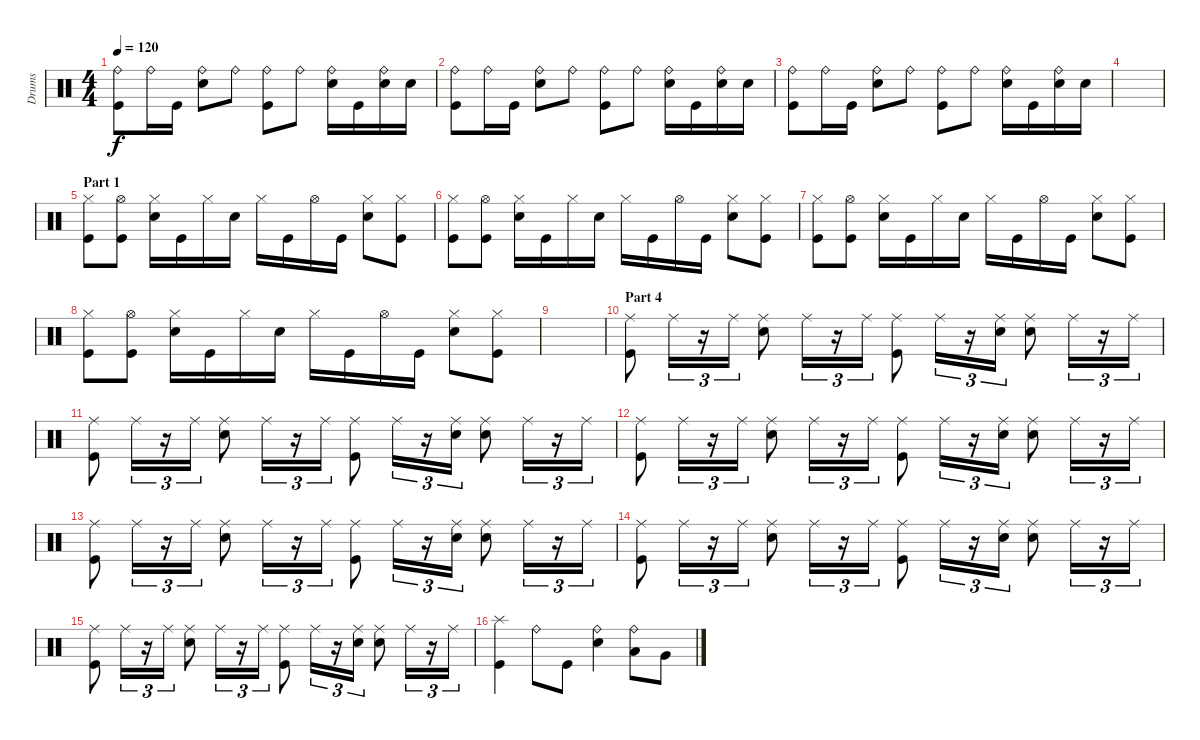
\track ("Drums" "Drums") {instrument percussion}
\staff {score}
\articulation defaults
\ts (4 4)
\tempo 120
\clef neutral
\ks c
("Ride (bell)" "Kick (hit)").8{dy f} "Ride (bell)".16 "Kick (hit)".16 ("Ride (bell)" "Snare (hit) 2").8 "Ride (bell)".8 ("Ride (bell)" "Kick (hit)").8 "Ride (bell)".8 ("Ride (bell)" "Snare (hit) 2").16 "Kick (hit)".16 ("Ride (bell)" "Snare (hit) 2").16 "Snare (hit) 2".16 |
("Ride (bell)" "Kick (hit)").8 "Ride (bell)".16 "Kick (hit)".16 ("Ride (bell)" "Snare (hit) 2").8 "Ride (bell)".8 ("Ride (bell)" "Kick (hit)").8 "Ride (bell)".8 ("Ride (bell)" "Snare (hit) 2").16 "Kick (hit)".16 ("Ride (bell)" "Snare (hit) 2").16 "Snare (hit) 2".16 |
("Ride (bell)" "Kick (hit)").8 "Ride (bell)".16 "Kick (hit)".16 ("Ride (bell)" "Snare (hit) 2").8 "Ride (bell)".8 ("Ride (bell)" "Kick (hit)").8 "Ride (bell)".8 ("Ride (bell)" "Snare (hit) 2").16 "Kick (hit)".16 ("Ride (bell)" "Snare (hit) 2").16 "Snare (hit) 2".16 |
|
\section ("" "Part 1")
("Hi-Hat (closed)" "Kick (hit)").8 ("Hi-Hat (open)" "Kick (hit)").8 ("Hi-Hat (closed)" "Snare (hit) 2").16 "Kick (hit)".16 "Hi-Hat (closed)".16 "Snare (hit) 2".16 "Hi-Hat (closed)".16 "Kick (hit)".16 "Hi-Hat (open)".16 "Kick (hit)".16 ("Hi-Hat (closed)" "Snare (hit) 2").8 ("Hi-Hat (closed)" "Kick (hit)").8 |
("Hi-Hat (closed)" "Kick (hit)").8 ("Hi-Hat (open)" "Kick (hit)").8 ("Hi-Hat (closed)" "Snare (hit) 2").16 "Kick (hit)".16 "Hi-Hat (closed)".16 "Snare (hit) 2".16 "Hi-Hat (closed)".16 "Kick (hit)".16 "Hi-Hat (open)".16 "Kick (hit)".16 ("Hi-Hat (closed)" "Snare (hit) 2").8 ("Hi-Hat (closed)" "Kick (hit)").8 |
("Hi-Hat (closed)" "Kick (hit)").8 ("Hi-Hat (open)" "Kick (hit)").8 ("Hi-Hat (closed)" "Snare (hit) 2").16 "Kick (hit)".16 "Hi-Hat (closed)".16 "Snare (hit) 2".16 "Hi-Hat (closed)".16 "Kick (hit)".16 "Hi-Hat (open)".16 "Kick (hit)".16 ("Hi-Hat (closed)" "Snare (hit) 2").8 ("Hi-Hat (closed)" "Kick (hit)").8 |
("Hi-Hat (closed)" "Kick (hit)").8 ("Hi-Hat (open)" "Kick (hit)").8 ("Hi-Hat (closed)" "Snare (hit) 2").16 "Kick (hit)".16 "Hi-Hat (closed)".16 "Snare (hit) 2".16 "Hi-Hat (closed)".16 "Kick (hit)".16 "Hi-Hat (open)".16 "Kick (hit)".16 ("Hi-Hat (closed)" "Snare (hit) 2").8 ("Hi-Hat (closed)" "Kick (hit)").8 |
|
\section ("" "Part 4")
("Ride (middle)" "Kick (hit)").8 "Ride (middle)".16{tu (3 2)} r.16{tu (3 2)} "Ride (middle)".16{tu (3 2)} ("Ride (middle)" "Snare (hit) 2").8 "Ride (middle)".16{tu (3 2)} r.16{tu (3 2)} "Ride (middle)".16{tu (3 2)} ("Ride (middle)" "Kick (hit)").8 "Ride (middle)".16{tu (3 2)} r.16{tu (3 2)} ("Ride (middle)" "Snare (hit) 2").16{tu (3 2)} ("Ride (middle)" "Snare (hit) 2").8 "Ride (middle)".16{tu (3 2)} r.16{tu (3 2)} "Ride (middle)".16{tu (3 2)} |
("Ride (middle)" "Kick (hit)").8 "Ride (middle)".16{tu (3 2)} r.16{tu (3 2)} "Ride (middle)".16{tu (3 2)} ("Ride (middle)" "Snare (hit) 2").8 "Ride (middle)".16{tu (3 2)} r.16{tu (3 2)} "Ride (middle)".16{tu (3 2)} ("Ride (middle)" "Kick (hit)").8 "Ride (middle)".16{tu (3 2)} r.16{tu (3 2)} ("Ride (middle)" "Snare (hit) 2").16{tu (3 2)} ("Ride (middle)" "Snare (hit) 2").8 "Ride (middle)".16{tu (3 2)} r.16{tu (3 2)} "Ride (middle)".16{tu (3 2)} |
("Ride (middle)" "Kick (hit)").8 "Ride (middle)".16{tu (3 2)} r.16{tu (3 2)} "Ride (middle)".16{tu (3 2)} ("Ride (middle)" "Snare (hit) 2").8 "Ride (middle)".16{tu (3 2)} r.16{tu (3 2)} "Ride (middle)".16{tu (3 2)} ("Ride (middle)" "Kick (hit)").8 "Ride (middle)".16{tu (3 2)} r.16{tu (3 2)} ("Ride (middle)" "Snare (hit) 2").16{tu (3 2)} ("Ride (middle)" "Snare (hit) 2").8 "Ride (middle)".16{tu (3 2)} r.16{tu (3 2)} "Ride (middle)".16{tu (3 2)} |
("Ride (middle)" "Kick (hit)").8 "Ride (middle)".16{tu (3 2)} r.16{tu (3 2)} "Ride (middle)".16{tu (3 2)} ("Ride (middle)" "Snare (hit) 2").8 "Ride (middle)".16{tu (3 2)} r.16{tu (3 2)} "Ride (middle)".16{tu (3 2)} ("Ride (middle)" "Kick (hit)").8 "Ride (middle)".16{tu (3 2)} r.16{tu (3 2)} ("Ride (middle)" "Snare (hit) 2").16{tu (3 2)} ("Ride (middle)" "Snare (hit) 2").8 "Ride (middle)".16{tu (3 2)} r.16{tu (3 2)} "Ride (middle)".16{tu (3 2)} |
("Ride (middle)" "Kick (hit)").8 "Ride (middle)".16{tu (3 2)} r.16{tu (3 2)} "Ride (middle)".16{tu (3 2)} ("Ride (middle)" "Snare (hit) 2").8 "Ride (middle)".16{tu (3 2)} r.16{tu (3 2)} "Ride (middle)".16{tu (3 2)} ("Ride (middle)" "Kick (hit)").8 "Ride (middle)".16{tu (3 2)} r.16{tu (3 2)} ("Ride (middle)" "Snare (hit) 2").16{tu (3 2)} ("Ride (middle)" "Snare (hit) 2").8 "Ride (middle)".16{tu (3 2)} r.16{tu (3 2)} "Ride (middle)".16{tu (3 2)} |
("Ride (middle)" "Kick (hit)").8 "Ride (middle)".16{tu (3 2)} r.16{tu (3 2)} "Ride (middle)".16{tu (3 2)} ("Ride (middle)" "Snare (hit) 2").8 "Ride (middle)".16{tu (3 2)} r.16{tu (3 2)} "Ride (middle)".16{tu (3 2)} ("Ride (middle)" "Kick (hit)").8 "Ride (middle)".16{tu (3 2)} r.16{tu (3 2)} ("Ride (middle)" "Snare (hit) 2").16{tu (3 2)} ("Ride (middle)" "Snare (hit) 2").8 "Ride (middle)".16{tu (3 2)} r.16{tu (3 2)} "Ride (middle)".16{tu (3 2)} |
("Splash (hit)" "Kick (hit)").4 "Ride (bell)".8 "Kick (hit)".8 ("Ride (bell)" "Snare (hit) 2").4 ("Ride (bell)" "Low Tom (hit)").8 "Very Low Tom (hit)".8
